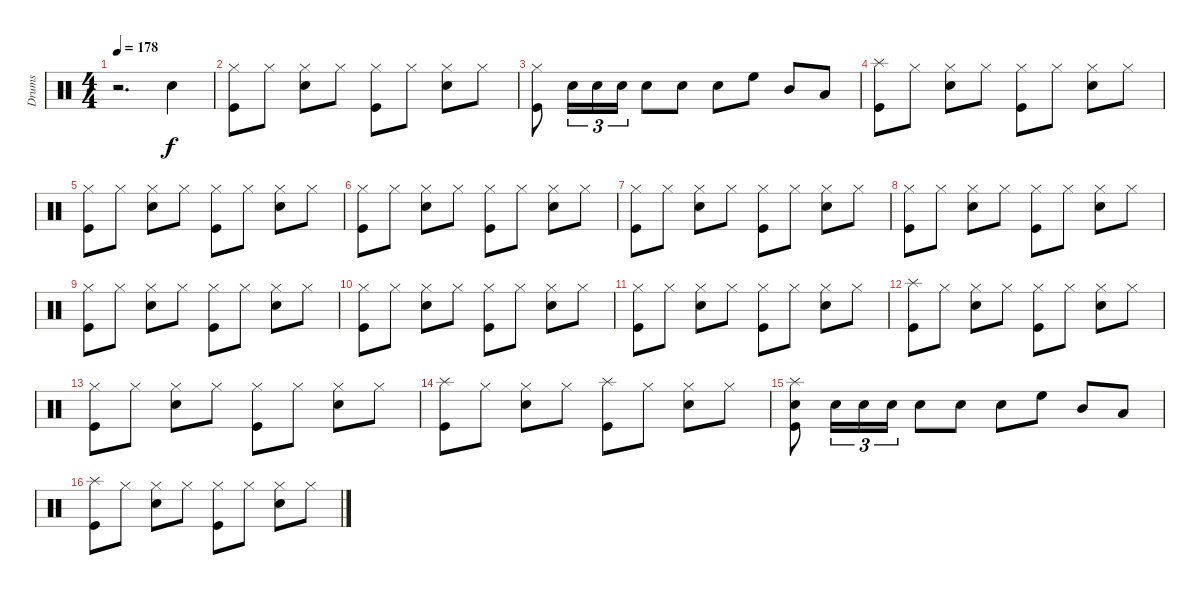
\track ("Drums" "Drums") {instrument percussion}
\staff {score}
\articulation defaults
\ts (4 4)
\tempo 178
\clef neutral
\ks c
r.2{d dy f} "Electric Snare (hit)".4 |
("Hi-Hat (closed)" "Kick (hit)").8 "Hi-Hat (closed)".8 ("Hi-Hat (closed)" "Electric Snare (hit)").8 "Hi-Hat (closed)".8 ("Hi-Hat (closed)" "Kick (hit)").8 "Hi-Hat (closed)".8 ("Hi-Hat (closed)" "Electric Snare (hit)").8 "Hi-Hat (closed)".8 |
("Hi-Hat (closed)" "Kick (hit)").8 "Electric Snare (hit)".16{tu (3 2)} "Electric Snare (hit)".16{tu (3 2)} "Electric Snare (hit)".16{tu (3 2)} "Electric Snare (hit)".8 "Electric Snare (hit)".8 "Electric Snare (hit)".8 "High Floor Tom (hit)".8 "Mid Tom (hit)".8 "Low Tom (hit)".8 |
("Splash (hit)" "Kick (hit)").8 "Hi-Hat (closed)".8 ("Hi-Hat (closed)" "Electric Snare (hit)").8 "Hi-Hat (closed)".8 ("Hi-Hat (closed)" "Kick (hit)").8 "Hi-Hat (closed)".8 ("Hi-Hat (closed)" "Electric Snare (hit)").8 "Hi-Hat (closed)".8 |
("Hi-Hat (closed)" "Kick (hit)").8 "Hi-Hat (closed)".8 ("Hi-Hat (closed)" "Electric Snare (hit)").8 "Hi-Hat (closed)".8 ("Hi-Hat (closed)" "Kick (hit)").8 "Hi-Hat (closed)".8 ("Hi-Hat (closed)" "Electric Snare (hit)").8 "Hi-Hat (closed)".8 |
("Hi-Hat (closed)" "Kick (hit)").8 "Hi-Hat (closed)".8 ("Hi-Hat (closed)" "Electric Snare (hit)").8 "Hi-Hat (closed)".8 ("Hi-Hat (closed)" "Kick (hit)").8 "Hi-Hat (closed)".8 ("Hi-Hat (closed)" "Electric Snare (hit)").8 "Hi-Hat (closed)".8 |
("Hi-Hat (closed)" "Kick (hit)").8 "Hi-Hat (closed)".8 ("Hi-Hat (closed)" "Electric Snare (hit)").8 "Hi-Hat (closed)".8 ("Hi-Hat (closed)" "Kick (hit)").8 "Hi-Hat (closed)".8 ("Hi-Hat (closed)" "Electric Snare (hit)").8 "Hi-Hat (closed)".8 |
("Hi-Hat (closed)" "Kick (hit)").8 "Hi-Hat (closed)".8 ("Hi-Hat (closed)" "Electric Snare (hit)").8 "Hi-Hat (closed)".8 ("Hi-Hat (closed)" "Kick (hit)").8 "Hi-Hat (closed)".8 ("Hi-Hat (closed)" "Electric Snare (hit)").8 "Hi-Hat (closed)".8 |
("Hi-Hat (closed)" "Kick (hit)").8 "Hi-Hat (closed)".8 ("Hi-Hat (closed)" "Electric Snare (hit)").8 "Hi-Hat (closed)".8 ("Hi-Hat (closed)" "Kick (hit)").8 "Hi-Hat (closed)".8 ("Hi-Hat (closed)" "Electric Snare (hit)").8 "Hi-Hat (closed)".8 |
("Hi-Hat (closed)" "Kick (hit)").8 "Hi-Hat (closed)".8 ("Hi-Hat (closed)" "Electric Snare (hit)").8 "Hi-Hat (closed)".8 ("Hi-Hat (closed)" "Kick (hit)").8 "Hi-Hat (closed)".8 ("Hi-Hat (closed)" "Electric Snare (hit)").8 "Hi-Hat (closed)".8 |
("Hi-Hat (closed)" "Kick (hit)").8 "Hi-Hat (closed)".8 ("Hi-Hat (closed)" "Electric Snare (hit)").8 "Hi-Hat (closed)".8 ("Hi-Hat (closed)" "Kick (hit)").8 "Hi-Hat (closed)".8 ("Hi-Hat (closed)" "Electric Snare (hit)").8 "Hi-Hat (closed)".8 |
("Splash (hit)" "Kick (hit)").8 "Hi-Hat (closed)".8 ("Hi-Hat (closed)" "Electric Snare (hit)").8 "Hi-Hat (closed)".8 ("Hi-Hat (closed)" "Kick (hit)").8 "Hi-Hat (closed)".8 ("Hi-Hat (closed)" "Electric Snare (hit)").8 "Hi-Hat (closed)".8 |
("Hi-Hat (closed)" "Kick (hit)").8 "Hi-Hat (closed)".8 ("Hi-Hat (closed)" "Electric Snare (hit)").8 "Hi-Hat (closed)".8 ("Hi-Hat (closed)" "Kick (hit)").8 "Hi-Hat (closed)".8 ("Hi-Hat (closed)" "Electric Snare (hit)").8 "Hi-Hat (closed)".8 |
("Splash (hit)" "Kick (hit)").8 "Hi-Hat (closed)".8 ("Hi-Hat (closed)" "Electric Snare (hit)").8 "Hi-Hat (closed)".8 ("Splash (hit)" "Kick (hit)").8 "Hi-Hat (closed)".8 ("Hi-Hat (closed)" "Electric Snare (hit)").8 "Hi-Hat (closed)".8 |
("Splash (hit)" "Electric Snare (hit)" "Kick (hit)").8 "Electric Snare (hit)".16{tu (3 2)} "Electric Snare (hit)".16{tu (3 2)} "Electric Snare (hit)".16{tu (3 2)} "Electric Snare (hit)".8 "Electric Snare (hit)".8 "Electric Snare (hit)".8 "High Floor Tom (hit)".8 "Mid Tom (hit)".8 "Low Tom (hit)".8 |
("Splash (hit)" "Kick (hit)").8 "Hi-Hat (closed)".8 ("Hi-Hat (closed)" "Electric Snare (hit)").8 "Hi-Hat (closed)".8 ("Hi-Hat (closed)" "Kick (hit)").8 "Hi-Hat (closed)".8 ("Hi-Hat (closed)" "Electric Snare (hit)").8 "Hi-Hat (closed)".8
